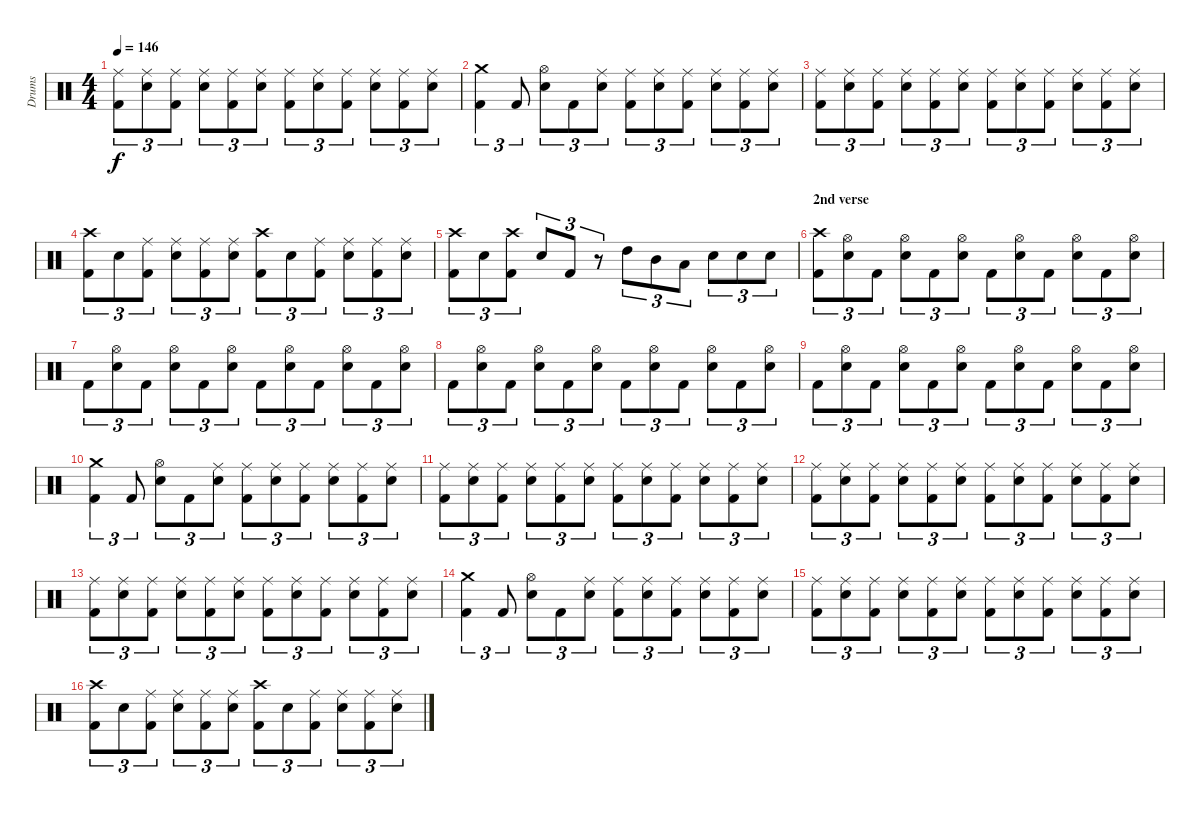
\track ("Drums" "Drums") {instrument percussion}
\staff {score}
\articulation defaults
\ts (4 4)
\tempo 146
\clef neutral
\ks c
("Ride (middle)" "Kick (hit) 2").8{tu (3 2) dy f} ("Ride (middle)" "Electric Snare (hit)").8{tu (3 2)} ("Ride (middle)" "Kick (hit) 2").8{tu (3 2)} ("Ride (middle)" "Electric Snare (hit)").8{tu (3 2)} ("Ride (middle)" "Kick (hit) 2").8{tu (3 2)} ("Ride (middle)" "Electric Snare (hit)").8{tu (3 2)} ("Ride (middle)" "Kick (hit) 2").8{tu (3 2)} ("Ride (middle)" "Electric Snare (hit)").8{tu (3 2)} ("Ride (middle)" "Kick (hit) 2").8{tu (3 2)} ("Ride (middle)" "Electric Snare (hit)").8{tu (3 2)} ("Ride (middle)" "Kick (hit) 2").8{tu (3 2)} ("Ride (middle)" "Electric Snare (hit)").8{tu (3 2)} |
("Crash medium (hit)" "Kick (hit) 2").4{tu (3 2)} "Kick (hit) 2".8{tu (3 2)} ("Hi-Hat (open)" "Electric Snare (hit)").8{tu (3 2)} "Kick (hit) 2".8{tu (3 2)} ("Ride (middle)" "Electric Snare (hit)").8{tu (3 2)} ("Ride (middle)" "Kick (hit) 2").8{tu (3 2)} ("Ride (middle)" "Electric Snare (hit)").8{tu (3 2)} ("Ride (middle)" "Kick (hit) 2").8{tu (3 2)} ("Ride (middle)" "Electric Snare (hit)").8{tu (3 2)} ("Ride (middle)" "Kick (hit) 2").8{tu (3 2)} ("Ride (middle)" "Electric Snare (hit)").8{tu (3 2)} |
("Ride (middle)" "Kick (hit) 2").8{tu (3 2)} ("Ride (middle)" "Electric Snare (hit)").8{tu (3 2)} ("Ride (middle)" "Kick (hit) 2").8{tu (3 2)} ("Ride (middle)" "Electric Snare (hit)").8{tu (3 2)} ("Ride (middle)" "Kick (hit) 2").8{tu (3 2)} ("Ride (middle)" "Electric Snare (hit)").8{tu (3 2)} ("Ride (middle)" "Kick (hit) 2").8{tu (3 2)} ("Ride (middle)" "Electric Snare (hit)").8{tu (3 2)} ("Ride (middle)" "Kick (hit) 2").8{tu (3 2)} ("Ride (middle)" "Electric Snare (hit)").8{tu (3 2)} ("Ride (middle)" "Kick (hit) 2").8{tu (3 2)} ("Ride (middle)" "Electric Snare (hit)").8{tu (3 2)} |
("Crash high (hit)" "Kick (hit) 2").8{tu (3 2)} "Electric Snare (hit)".8{tu (3 2)} ("Ride (middle)" "Kick (hit) 2").8{tu (3 2)} ("Ride (middle)" "Electric Snare (hit)").8{tu (3 2)} ("Ride (middle)" "Kick (hit) 2").8{tu (3 2)} ("Ride (middle)" "Electric Snare (hit)").8{tu (3 2)} ("Crash high (hit)" "Kick (hit) 2").8{tu (3 2)} "Electric Snare (hit)".8{tu (3 2)} ("Ride (middle)" "Kick (hit) 2").8{tu (3 2)} ("Ride (middle)" "Electric Snare (hit)").8{tu (3 2)} ("Ride (middle)" "Kick (hit) 2").8{tu (3 2)} ("Ride (middle)" "Electric Snare (hit)").8{tu (3 2)} |
("Crash high (hit)" "Kick (hit) 2").8{tu (3 2)} "Electric Snare (hit)".8{tu (3 2)} ("Crash high (hit)" "Kick (hit) 2").8{tu (3 2)} "Electric Snare (hit)".8{tu (3 2)} "Kick (hit) 2".8{tu (3 2)} r.8{tu (3 2)} "High Tom (hit)".8{tu (3 2)} "Mid Tom (hit)".8{tu (3 2)} "Low Tom (hit)".8{tu (3 2)} "Electric Snare (hit)".8{tu (3 2)} "Electric Snare (hit)".8{tu (3 2)} "Electric Snare (hit)".8{tu (3 2)} |
\section ("" "2nd verse")
("Crash high (hit)" "Kick (hit) 2").8{tu (3 2)} ("Hi-Hat (open)" "Electric Snare (hit)").8{tu (3 2)} "Kick (hit) 2".8{tu (3 2)} ("Hi-Hat (open)" "Electric Snare (hit)").8{tu (3 2)} "Kick (hit) 2".8{tu (3 2)} ("Hi-Hat (open)" "Electric Snare (hit)").8{tu (3 2)} "Kick (hit) 2".8{tu (3 2)} ("Hi-Hat (open)" "Electric Snare (hit)").8{tu (3 2)} "Kick (hit) 2".8{tu (3 2)} ("Hi-Hat (open)" "Electric Snare (hit)").8{tu (3 2)} "Kick (hit) 2".8{tu (3 2)} ("Hi-Hat (open)" "Electric Snare (hit)").8{tu (3 2)} |
"Kick (hit) 2".8{tu (3 2)} ("Hi-Hat (open)" "Electric Snare (hit)").8{tu (3 2)} "Kick (hit) 2".8{tu (3 2)} ("Hi-Hat (open)" "Electric Snare (hit)").8{tu (3 2)} "Kick (hit) 2".8{tu (3 2)} ("Hi-Hat (open)" "Electric Snare (hit)").8{tu (3 2)} "Kick (hit) 2".8{tu (3 2)} ("Hi-Hat (open)" "Electric Snare (hit)").8{tu (3 2)} "Kick (hit) 2".8{tu (3 2)} ("Hi-Hat (open)" "Electric Snare (hit)").8{tu (3 2)} "Kick (hit) 2".8{tu (3 2)} ("Hi-Hat (open)" "Electric Snare (hit)").8{tu (3 2)} |
"Kick (hit) 2".8{tu (3 2)} ("Hi-Hat (open)" "Electric Snare (hit)").8{tu (3 2)} "Kick (hit) 2".8{tu (3 2)} ("Hi-Hat (open)" "Electric Snare (hit)").8{tu (3 2)} "Kick (hit) 2".8{tu (3 2)} ("Hi-Hat (open)" "Electric Snare (hit)").8{tu (3 2)} "Kick (hit) 2".8{tu (3 2)} ("Hi-Hat (open)" "Electric Snare (hit)").8{tu (3 2)} "Kick (hit) 2".8{tu (3 2)} ("Hi-Hat (open)" "Electric Snare (hit)").8{tu (3 2)} "Kick (hit) 2".8{tu (3 2)} ("Hi-Hat (open)" "Electric Snare (hit)").8{tu (3 2)} |
"Kick (hit) 2".8{tu (3 2)} ("Hi-Hat (open)" "Electric Snare (hit)").8{tu (3 2)} "Kick (hit) 2".8{tu (3 2)} ("Hi-Hat (open)" "Electric Snare (hit)").8{tu (3 2)} "Kick (hit) 2".8{tu (3 2)} ("Hi-Hat (open)" "Electric Snare (hit)").8{tu (3 2)} "Kick (hit) 2".8{tu (3 2)} ("Hi-Hat (open)" "Electric Snare (hit)").8{tu (3 2)} "Kick (hit) 2".8{tu (3 2)} ("Hi-Hat (open)" "Electric Snare (hit)").8{tu (3 2)} "Kick (hit) 2".8{tu (3 2)} ("Hi-Hat (open)" "Electric Snare (hit)").8{tu (3 2)} |
("Crash medium (hit)" "Kick (hit) 2").4{tu (3 2)} "Kick (hit) 2".8{tu (3 2)} ("Hi-Hat (open)" "Electric Snare (hit)").8{tu (3 2)} "Kick (hit) 2".8{tu (3 2)} ("Ride (middle)" "Electric Snare (hit)").8{tu (3 2)} ("Ride (middle)" "Kick (hit) 2").8{tu (3 2)} ("Ride (middle)" "Electric Snare (hit)").8{tu (3 2)} ("Ride (middle)" "Kick (hit) 2").8{tu (3 2)} ("Ride (middle)" "Electric Snare (hit)").8{tu (3 2)} ("Ride (middle)" "Kick (hit) 2").8{tu (3 2)} ("Ride (middle)" "Electric Snare (hit)").8{tu (3 2)} |
("Ride (middle)" "Kick (hit) 2").8{tu (3 2)} ("Ride (middle)" "Electric Snare (hit)").8{tu (3 2)} ("Ride (middle)" "Kick (hit) 2").8{tu (3 2)} ("Ride (middle)" "Electric Snare (hit)").8{tu (3 2)} ("Ride (middle)" "Kick (hit) 2").8{tu (3 2)} ("Ride (middle)" "Electric Snare (hit)").8{tu (3 2)} ("Ride (middle)" "Kick (hit) 2").8{tu (3 2)} ("Ride (middle)" "Electric Snare (hit)").8{tu (3 2)} ("Ride (middle)" "Kick (hit) 2").8{tu (3 2)} ("Ride (middle)" "Electric Snare (hit)").8{tu (3 2)} ("Ride (middle)" "Kick (hit) 2").8{tu (3 2)} ("Ride (middle)" "Electric Snare (hit)").8{tu (3 2)} |
("Ride (middle)" "Kick (hit) 2").8{tu (3 2)} ("Ride (middle)" "Electric Snare (hit)").8{tu (3 2)} ("Ride (middle)" "Kick (hit) 2").8{tu (3 2)} ("Ride (middle)" "Electric Snare (hit)").8{tu (3 2)} ("Ride (middle)" "Kick (hit) 2").8{tu (3 2)} ("Ride (middle)" "Electric Snare (hit)").8{tu (3 2)} ("Ride (middle)" "Kick (hit) 2").8{tu (3 2)} ("Ride (middle)" "Electric Snare (hit)").8{tu (3 2)} ("Ride (middle)" "Kick (hit) 2").8{tu (3 2)} ("Ride (middle)" "Electric Snare (hit)").8{tu (3 2)} ("Ride (middle)" "Kick (hit) 2").8{tu (3 2)} ("Ride (middle)" "Electric Snare (hit)").8{tu (3 2)} |
("Ride (middle)" "Kick (hit) 2").8{tu (3 2)} ("Ride (middle)" "Electric Snare (hit)").8{tu (3 2)} ("Ride (middle)" "Kick (hit) 2").8{tu (3 2)} ("Ride (middle)" "Electric Snare (hit)").8{tu (3 2)} ("Ride (middle)" "Kick (hit) 2").8{tu (3 2)} ("Ride (middle)" "Electric Snare (hit)").8{tu (3 2)} ("Ride (middle)" "Kick (hit) 2").8{tu (3 2)} ("Ride (middle)" "Electric Snare (hit)").8{tu (3 2)} ("Ride (middle)" "Kick (hit) 2").8{tu (3 2)} ("Ride (middle)" "Electric Snare (hit)").8{tu (3 2)} ("Ride (middle)" "Kick (hit) 2").8{tu (3 2)} ("Ride (middle)" "Electric Snare (hit)").8{tu (3 2)} |
("Crash medium (hit)" "Kick (hit) 2").4{tu (3 2)} "Kick (hit) 2".8{tu (3 2)} ("Hi-Hat (open)" "Electric Snare (hit)").8{tu (3 2)} "Kick (hit) 2".8{tu (3 2)} ("Ride (middle)" "Electric Snare (hit)").8{tu (3 2)} ("Ride (middle)" "Kick (hit) 2").8{tu (3 2)} ("Ride (middle)" "Electric Snare (hit)").8{tu (3 2)} ("Ride (middle)" "Kick (hit) 2").8{tu (3 2)} ("Ride (middle)" "Electric Snare (hit)").8{tu (3 2)} ("Ride (middle)" "Kick (hit) 2").8{tu (3 2)} ("Ride (middle)" "Electric Snare (hit)").8{tu (3 2)} |
("Ride (middle)" "Kick (hit) 2").8{tu (3 2)} ("Ride (middle)" "Electric Snare (hit)").8{tu (3 2)} ("Ride (middle)" "Kick (hit) 2").8{tu (3 2)} ("Ride (middle)" "Electric Snare (hit)").8{tu (3 2)} ("Ride (middle)" "Kick (hit) 2").8{tu (3 2)} ("Ride (middle)" "Electric Snare (hit)").8{tu (3 2)} ("Ride (middle)" "Kick (hit) 2").8{tu (3 2)} ("Ride (middle)" "Electric Snare (hit)").8{tu (3 2)} ("Ride (middle)" "Kick (hit) 2").8{tu (3 2)} ("Ride (middle)" "Electric Snare (hit)").8{tu (3 2)} ("Ride (middle)" "Kick (hit) 2").8{tu (3 2)} ("Ride (middle)" "Electric Snare (hit)").8{tu (3 2)} |
("Crash high (hit)" "Kick (hit) 2").8{tu (3 2)} "Electric Snare (hit)".8{tu (3 2)} ("Ride (middle)" "Kick (hit) 2").8{tu (3 2)} ("Ride (middle)" "Electric Snare (hit)").8{tu (3 2)} ("Ride (middle)" "Kick (hit) 2").8{tu (3 2)} ("Ride (middle)" "Electric Snare (hit)").8{tu (3 2)} ("Crash high (hit)" "Kick (hit) 2").8{tu (3 2)} "Electric Snare (hit)".8{tu (3 2)} ("Ride (middle)" "Kick (hit) 2").8{tu (3 2)} ("Ride (middle)" "Electric Snare (hit)").8{tu (3 2)} ("Ride (middle)" "Kick (hit) 2").8{tu (3 2)} ("Ride (middle)" "Electric Snare (hit)").8{tu (3 2)}
